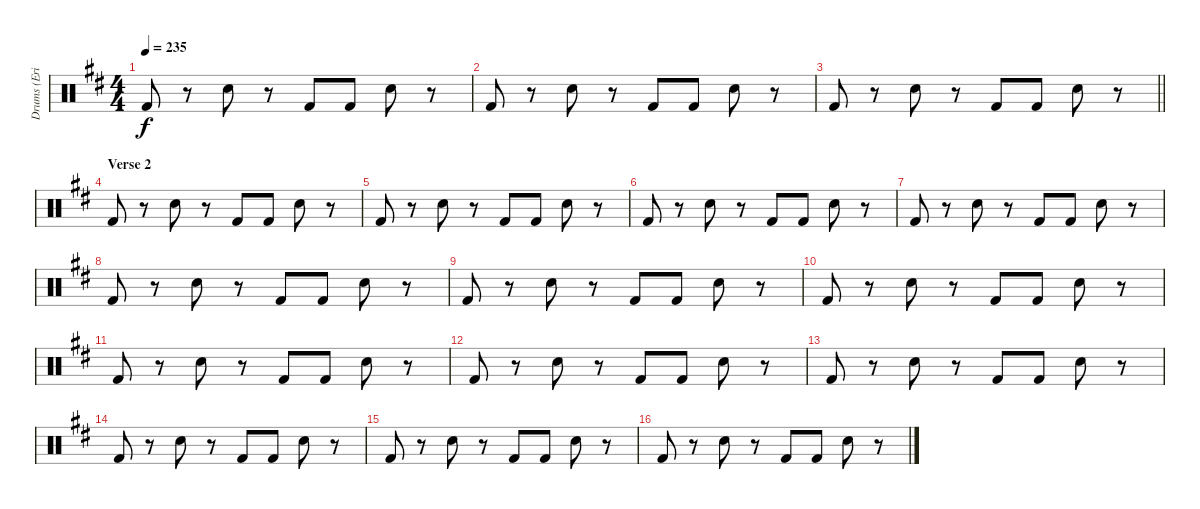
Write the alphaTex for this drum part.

\track ("Drums (Eric Carr)" "Drums (Eri") {instrument percussion}
\staff {score}
\articulation defaults
\ts (4 4)
\tempo 235
\clef neutral
\ks d "Kick (hit) 2".8{dy f}
r.8 "Snare (hit) 2".8 r.8 "Kick (hit) 2".8 "Kick (hit) 2".8 "Snare (hit) 2".8 r.8 |
"Kick (hit) 2".8 r.8 "Snare (hit) 2".8 r.8 "Kick (hit) 2".8 "Kick (hit) 2".8 "Snare (hit) 2".8 r.8 |
\barLineRight lightlight "Kick (hit) 2".8
r.8 "Snare (hit) 2".8 r.8 "Kick (hit) 2".8 "Kick (hit) 2".8 "Snare (hit) 2".8 r.8 |
\section ("" "Verse 2")
"Kick (hit) 2".8 r.8 "Snare (hit) 2".8 r.8 "Kick (hit) 2".8 "Kick (hit) 2".8 "Snare (hit) 2".8 r.8 |
"Kick (hit) 2".8 r.8 "Snare (hit) 2".8 r.8 "Kick (hit) 2".8 "Kick (hit) 2".8 "Snare (hit) 2".8 r.8 |
"Kick (hit) 2".8 r.8 "Snare (hit) 2".8 r.8 "Kick (hit) 2".8 "Kick (hit) 2".8 "Snare (hit) 2".8 r.8 |
"Kick (hit) 2".8 r.8 "Snare (hit) 2".8 r.8 "Kick (hit) 2".8 "Kick (hit) 2".8 "Snare (hit) 2".8 r.8 |
"Kick (hit) 2".8 r.8 "Snare (hit) 2".8 r.8 "Kick (hit) 2".8 "Kick (hit) 2".8 "Snare (hit) 2".8 r.8 |
"Kick (hit) 2".8 r.8 "Snare (hit) 2".8 r.8 "Kick (hit) 2".8 "Kick (hit) 2".8 "Snare (hit) 2".8 r.8 |
"Kick (hit) 2".8 r.8 "Snare (hit) 2".8 r.8 "Kick (hit) 2".8 "Kick (hit) 2".8 "Snare (hit) 2".8 r.8 |
"Kick (hit) 2".8 r.8 "Snare (hit) 2".8 r.8 "Kick (hit) 2".8 "Kick (hit) 2".8 "Snare (hit) 2".8 r.8 |
"Kick (hit) 2".8 r.8 "Snare (hit) 2".8 r.8 "Kick (hit) 2".8 "Kick (hit) 2".8 "Snare (hit) 2".8 r.8 |
"Kick (hit) 2".8 r.8 "Snare (hit) 2".8 r.8 "Kick (hit) 2".8 "Kick (hit) 2".8 "Snare (hit) 2".8 r.8 |
"Kick (hit) 2".8 r.8 "Snare (hit) 2".8 r.8 "Kick (hit) 2".8 "Kick (hit) 2".8 "Snare (hit) 2".8 r.8 |
"Kick (hit) 2".8 r.8 "Snare (hit) 2".8 r.8 "Kick (hit) 2".8 "Kick (hit) 2".8 "Snare (hit) 2".8 r.8 |
"Kick (hit) 2".8 r.8 "Snare (hit) 2".8 r.8 "Kick (hit) 2".8 "Kick (hit) 2".8 "Snare (hit) 2".8 r.8
